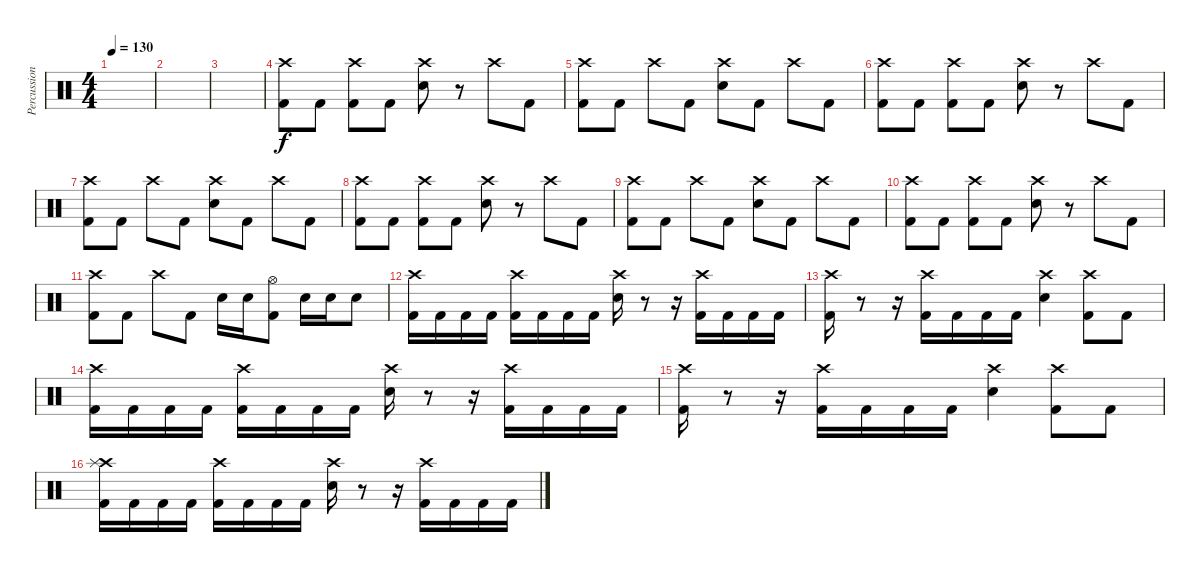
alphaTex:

\track ("Percussion" "Percussion") {instrument percussion}
\staff {score}
\articulation defaults
\ts (4 4)
\tempo 130
\clef neutral
\ks c
|
|
|
("Crash high (hit)" "Kick (hit) 2").8 "Kick (hit) 2".8 ("Crash high (hit)" "Kick (hit) 2").8 "Kick (hit) 2".8 ("Crash high (hit)" "Electric Snare (hit)").8 r.8 "Crash high (hit)".8 "Kick (hit) 2".8 |
("Crash high (hit)" "Kick (hit) 2").8 "Kick (hit) 2".8 "Crash high (hit)".8 "Kick (hit) 2".8 ("Crash high (hit)" "Electric Snare (hit)").8 "Kick (hit) 2".8 "Crash high (hit)".8 "Kick (hit) 2".8 |
("Crash high (hit)" "Kick (hit) 2").8 "Kick (hit) 2".8 ("Crash high (hit)" "Kick (hit) 2").8 "Kick (hit) 2".8 ("Crash high (hit)" "Electric Snare (hit)").8 r.8 "Crash high (hit)".8 "Kick (hit) 2".8 |
("Crash high (hit)" "Kick (hit) 2").8 "Kick (hit) 2".8 "Crash high (hit)".8 "Kick (hit) 2".8 ("Crash high (hit)" "Electric Snare (hit)").8 "Kick (hit) 2".8 "Crash high (hit)".8 "Kick (hit) 2".8 |
("Crash high (hit)" "Kick (hit) 2").8 "Kick (hit) 2".8 ("Crash high (hit)" "Kick (hit) 2").8 "Kick (hit) 2".8 ("Crash high (hit)" "Electric Snare (hit)").8 r.8 "Crash high (hit)".8 "Kick (hit) 2".8 |
("Crash high (hit)" "Kick (hit) 2").8 "Kick (hit) 2".8 "Crash high (hit)".8 "Kick (hit) 2".8 ("Crash high (hit)" "Electric Snare (hit)").8 "Kick (hit) 2".8 "Crash high (hit)".8 "Kick (hit) 2".8 |
("Crash high (hit)" "Kick (hit) 2").8 "Kick (hit) 2".8 ("Crash high (hit)" "Kick (hit) 2").8 "Kick (hit) 2".8 ("Crash high (hit)" "Electric Snare (hit)").8 r.8 "Crash high (hit)".8 "Kick (hit) 2".8 |
("Crash high (hit)" "Kick (hit) 2").8 "Kick (hit) 2".8 "Crash high (hit)".8 "Kick (hit) 2".8 "Electric Snare (hit)".16 "Electric Snare (hit)".16 ("Hi-Hat (open)" "Kick (hit) 2").8 "Electric Snare (hit)".16 "Electric Snare (hit)".16 "Electric Snare (hit)".8 |
("Crash high (hit)" "Kick (hit) 2").16 "Kick (hit) 2".16 "Kick (hit) 2".16 "Kick (hit) 2".16 ("Crash high (hit)" "Kick (hit) 2").16 "Kick (hit) 2".16 "Kick (hit) 2".16 "Kick (hit) 2".16 ("Crash high (hit)" "Electric Snare (hit)").16 r.8 r.16 ("Crash high (hit)" "Kick (hit) 2").16 "Kick (hit) 2".16 "Kick (hit) 2".16 "Kick (hit) 2".16 |
("Crash high (hit)" "Kick (hit) 2").16 r.8 r.16 ("Crash high (hit)" "Kick (hit) 2").16 "Kick (hit) 2".16 "Kick (hit) 2".16 "Kick (hit) 2".16 ("Crash high (hit)" "Electric Snare (hit)").4 ("Crash high (hit)" "Kick (hit) 2").8 "Kick (hit) 2".8 |
("Crash high (hit)" "Kick (hit) 2").16 "Kick (hit) 2".16 "Kick (hit) 2".16 "Kick (hit) 2".16 ("Crash high (hit)" "Kick (hit) 2").16 "Kick (hit) 2".16 "Kick (hit) 2".16 "Kick (hit) 2".16 ("Crash high (hit)" "Electric Snare (hit)").16 r.8 r.16 ("Crash high (hit)" "Kick (hit) 2").16 "Kick (hit) 2".16 "Kick (hit) 2".16 "Kick (hit) 2".16 |
("Crash high (hit)" "Kick (hit) 2").16 r.8 r.16 ("Crash high (hit)" "Kick (hit) 2").16 "Kick (hit) 2".16 "Kick (hit) 2".16 "Kick (hit) 2".16 ("Crash high (hit)" "Electric Snare (hit)").4 ("Crash high (hit)" "Kick (hit) 2").8 "Kick (hit) 2".8 |
("Crash high (hit)" "Splash (hit)" "Kick (hit) 2").16 "Kick (hit) 2".16 "Kick (hit) 2".16 "Kick (hit) 2".16 ("Crash high (hit)" "Kick (hit) 2").16 "Kick (hit) 2".16 "Kick (hit) 2".16 "Kick (hit) 2".16 ("Crash high (hit)" "Electric Snare (hit)").16 r.8 r.16 ("Crash high (hit)" "Kick (hit) 2").16 "Kick (hit) 2".16 "Kick (hit) 2".16 "Kick (hit) 2".16
